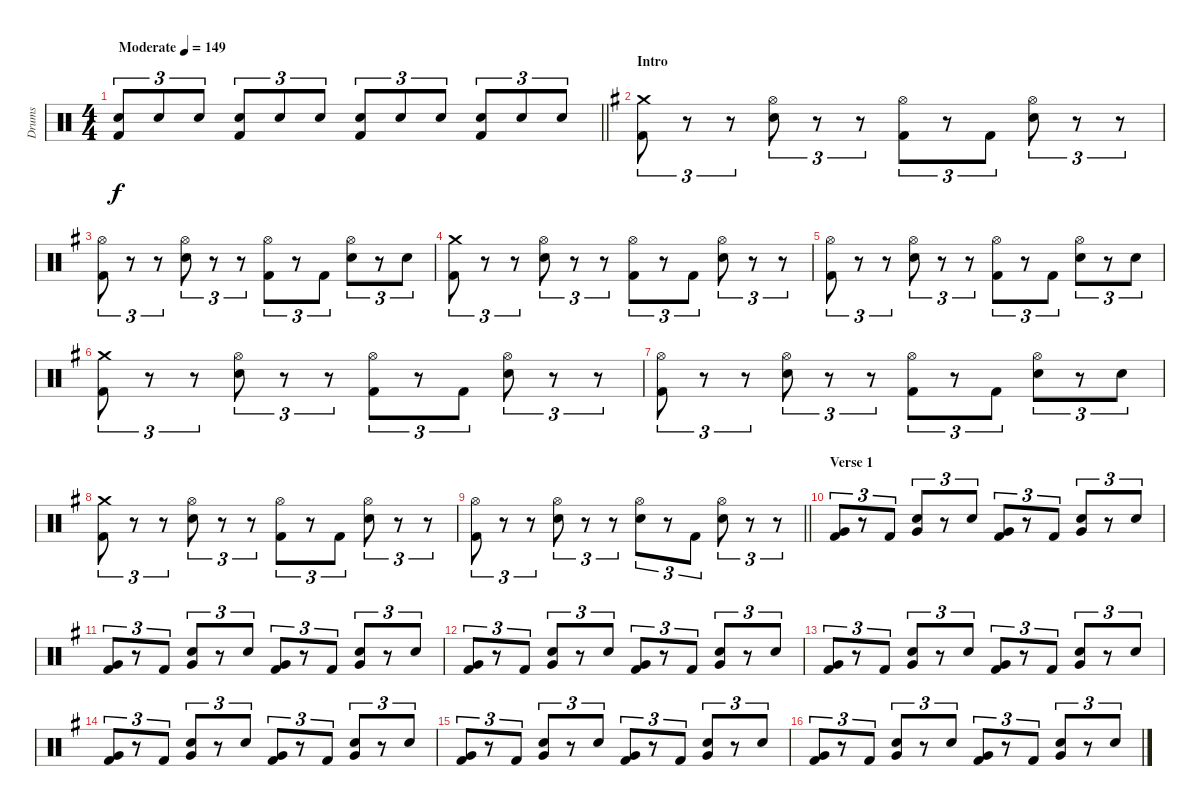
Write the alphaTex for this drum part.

\track ("Drums" "Drums") {instrument percussion}
\staff {score}
\articulation defaults
\ts (4 4)
\tempo (149 "Moderate")
\clef neutral
\barLineRight lightlight
\ks c
("Electric Snare (hit)" "Kick (hit) 2").8{tu (3 2) dy f} "Electric Snare (hit)".8{tu (3 2)} "Electric Snare (hit)".8{tu (3 2)} ("Electric Snare (hit)" "Kick (hit) 2").8{tu (3 2)} "Electric Snare (hit)".8{tu (3 2)} "Electric Snare (hit)".8{tu (3 2)} ("Electric Snare (hit)" "Kick (hit) 2").8{tu (3 2)} "Electric Snare (hit)".8{tu (3 2)} "Electric Snare (hit)".8{tu (3 2)} ("Electric Snare (hit)" "Kick (hit) 2").8{tu (3 2)} "Electric Snare (hit)".8{tu (3 2)} "Electric Snare (hit)".8{tu (3 2)} |
\section ("" "Intro")
\ks g
("Crash medium (hit)" "Kick (hit) 2").8{tu (3 2)} r.8{tu (3 2)} r.8{tu (3 2)} ("Hi-Hat (open)" "Electric Snare (hit)").8{tu (3 2)} r.8{tu (3 2)} r.8{tu (3 2)} ("Hi-Hat (open)" "Kick (hit) 2").8{tu (3 2)} r.8{tu (3 2)} "Kick (hit) 2".8{tu (3 2)} ("Hi-Hat (open)" "Electric Snare (hit)").8{tu (3 2)} r.8{tu (3 2)} r.8{tu (3 2)} |
("Hi-Hat (open)" "Kick (hit) 2").8{tu (3 2)} r.8{tu (3 2)} r.8{tu (3 2)} ("Hi-Hat (open)" "Electric Snare (hit)").8{tu (3 2)} r.8{tu (3 2)} r.8{tu (3 2)} ("Hi-Hat (open)" "Kick (hit) 2").8{tu (3 2)} r.8{tu (3 2)} "Kick (hit) 2".8{tu (3 2)} ("Hi-Hat (open)" "Electric Snare (hit)").8{tu (3 2)} r.8{tu (3 2)} "Electric Snare (hit)".8{tu (3 2)} |
("Crash medium (hit)" "Kick (hit) 2").8{tu (3 2)} r.8{tu (3 2)} r.8{tu (3 2)} ("Hi-Hat (open)" "Electric Snare (hit)").8{tu (3 2)} r.8{tu (3 2)} r.8{tu (3 2)} ("Hi-Hat (open)" "Kick (hit) 2").8{tu (3 2)} r.8{tu (3 2)} "Kick (hit) 2".8{tu (3 2)} ("Hi-Hat (open)" "Electric Snare (hit)").8{tu (3 2)} r.8{tu (3 2)} r.8{tu (3 2)} |
("Hi-Hat (open)" "Kick (hit) 2").8{tu (3 2)} r.8{tu (3 2)} r.8{tu (3 2)} ("Hi-Hat (open)" "Electric Snare (hit)").8{tu (3 2)} r.8{tu (3 2)} r.8{tu (3 2)} ("Hi-Hat (open)" "Kick (hit) 2").8{tu (3 2)} r.8{tu (3 2)} "Kick (hit) 2".8{tu (3 2)} ("Hi-Hat (open)" "Electric Snare (hit)").8{tu (3 2)} r.8{tu (3 2)} "Electric Snare (hit)".8{tu (3 2)} |
("Crash medium (hit)" "Kick (hit) 2").8{tu (3 2)} r.8{tu (3 2)} r.8{tu (3 2)} ("Hi-Hat (open)" "Electric Snare (hit)").8{tu (3 2)} r.8{tu (3 2)} r.8{tu (3 2)} ("Hi-Hat (open)" "Kick (hit) 2").8{tu (3 2)} r.8{tu (3 2)} "Kick (hit) 2".8{tu (3 2)} ("Hi-Hat (open)" "Electric Snare (hit)").8{tu (3 2)} r.8{tu (3 2)} r.8{tu (3 2)} |
("Hi-Hat (open)" "Kick (hit) 2").8{tu (3 2)} r.8{tu (3 2)} r.8{tu (3 2)} ("Hi-Hat (open)" "Electric Snare (hit)").8{tu (3 2)} r.8{tu (3 2)} r.8{tu (3 2)} ("Hi-Hat (open)" "Kick (hit) 2").8{tu (3 2)} r.8{tu (3 2)} "Kick (hit) 2".8{tu (3 2)} ("Hi-Hat (open)" "Electric Snare (hit)").8{tu (3 2)} r.8{tu (3 2)} "Electric Snare (hit)".8{tu (3 2)} |
("Crash medium (hit)" "Kick (hit) 2").8{tu (3 2)} r.8{tu (3 2)} r.8{tu (3 2)} ("Hi-Hat (open)" "Electric Snare (hit)").8{tu (3 2)} r.8{tu (3 2)} r.8{tu (3 2)} ("Hi-Hat (open)" "Kick (hit) 2").8{tu (3 2)} r.8{tu (3 2)} "Kick (hit) 2".8{tu (3 2)} ("Hi-Hat (open)" "Electric Snare (hit)").8{tu (3 2)} r.8{tu (3 2)} r.8{tu (3 2)} |
\barLineRight lightlight
("Hi-Hat (open)" "Kick (hit) 2").8{tu (3 2)} r.8{tu (3 2)} r.8{tu (3 2)} ("Hi-Hat (open)" "Electric Snare (hit)").8{tu (3 2)} r.8{tu (3 2)} r.8{tu (3 2)} ("Hi-Hat (open)" "Electric Snare (hit)").8{tu (3 2)} r.8{tu (3 2)} "Kick (hit) 2".8{tu (3 2)} ("Hi-Hat (open)" "Electric Snare (hit)").8{tu (3 2)} r.8{tu (3 2)} r.8{tu (3 2)} |
\section ("" "Verse 1")
("Very Low Tom (hit)" "Kick (hit) 2").8{tu (3 2)} r.8{tu (3 2)} "Kick (hit) 2".8{tu (3 2)} ("Electric Snare (hit)" "Very Low Tom (hit)").8{tu (3 2)} r.8{tu (3 2)} "Electric Snare (hit)".8{tu (3 2)} ("Very Low Tom (hit)" "Kick (hit) 2").8{tu (3 2)} r.8{tu (3 2)} "Kick (hit) 2".8{tu (3 2)} ("Electric Snare (hit)" "Very Low Tom (hit)").8{tu (3 2)} r.8{tu (3 2)} "Electric Snare (hit)".8{tu (3 2)} |
("Very Low Tom (hit)" "Kick (hit) 2").8{tu (3 2)} r.8{tu (3 2)} "Kick (hit) 2".8{tu (3 2)} ("Electric Snare (hit)" "Very Low Tom (hit)").8{tu (3 2)} r.8{tu (3 2)} "Electric Snare (hit)".8{tu (3 2)} ("Very Low Tom (hit)" "Kick (hit) 2").8{tu (3 2)} r.8{tu (3 2)} "Kick (hit) 2".8{tu (3 2)} ("Electric Snare (hit)" "Very Low Tom (hit)").8{tu (3 2)} r.8{tu (3 2)} "Electric Snare (hit)".8{tu (3 2)} |
("Very Low Tom (hit)" "Kick (hit) 2").8{tu (3 2)} r.8{tu (3 2)} "Kick (hit) 2".8{tu (3 2)} ("Electric Snare (hit)" "Very Low Tom (hit)").8{tu (3 2)} r.8{tu (3 2)} "Electric Snare (hit)".8{tu (3 2)} ("Very Low Tom (hit)" "Kick (hit) 2").8{tu (3 2)} r.8{tu (3 2)} "Kick (hit) 2".8{tu (3 2)} ("Electric Snare (hit)" "Very Low Tom (hit)").8{tu (3 2)} r.8{tu (3 2)} "Electric Snare (hit)".8{tu (3 2)} |
("Very Low Tom (hit)" "Kick (hit) 2").8{tu (3 2)} r.8{tu (3 2)} "Kick (hit) 2".8{tu (3 2)} ("Electric Snare (hit)" "Very Low Tom (hit)").8{tu (3 2)} r.8{tu (3 2)} "Electric Snare (hit)".8{tu (3 2)} ("Very Low Tom (hit)" "Kick (hit) 2").8{tu (3 2)} r.8{tu (3 2)} "Kick (hit) 2".8{tu (3 2)} ("Electric Snare (hit)" "Very Low Tom (hit)").8{tu (3 2)} r.8{tu (3 2)} "Electric Snare (hit)".8{tu (3 2)} |
("Very Low Tom (hit)" "Kick (hit) 2").8{tu (3 2)} r.8{tu (3 2)} "Kick (hit) 2".8{tu (3 2)} ("Electric Snare (hit)" "Very Low Tom (hit)").8{tu (3 2)} r.8{tu (3 2)} "Electric Snare (hit)".8{tu (3 2)} ("Very Low Tom (hit)" "Kick (hit) 2").8{tu (3 2)} r.8{tu (3 2)} "Kick (hit) 2".8{tu (3 2)} ("Electric Snare (hit)" "Very Low Tom (hit)").8{tu (3 2)} r.8{tu (3 2)} "Electric Snare (hit)".8{tu (3 2)} |
("Very Low Tom (hit)" "Kick (hit) 2").8{tu (3 2)} r.8{tu (3 2)} "Kick (hit) 2".8{tu (3 2)} ("Electric Snare (hit)" "Very Low Tom (hit)").8{tu (3 2)} r.8{tu (3 2)} "Electric Snare (hit)".8{tu (3 2)} ("Very Low Tom (hit)" "Kick (hit) 2").8{tu (3 2)} r.8{tu (3 2)} "Kick (hit) 2".8{tu (3 2)} ("Electric Snare (hit)" "Very Low Tom (hit)").8{tu (3 2)} r.8{tu (3 2)} "Electric Snare (hit)".8{tu (3 2)} |
("Very Low Tom (hit)" "Kick (hit) 2").8{tu (3 2)} r.8{tu (3 2)} "Kick (hit) 2".8{tu (3 2)} ("Electric Snare (hit)" "Very Low Tom (hit)").8{tu (3 2)} r.8{tu (3 2)} "Electric Snare (hit)".8{tu (3 2)} ("Very Low Tom (hit)" "Kick (hit) 2").8{tu (3 2)} r.8{tu (3 2)} "Kick (hit) 2".8{tu (3 2)} ("Electric Snare (hit)" "Very Low Tom (hit)").8{tu (3 2)} r.8{tu (3 2)} "Electric Snare (hit)".8{tu (3 2)}
